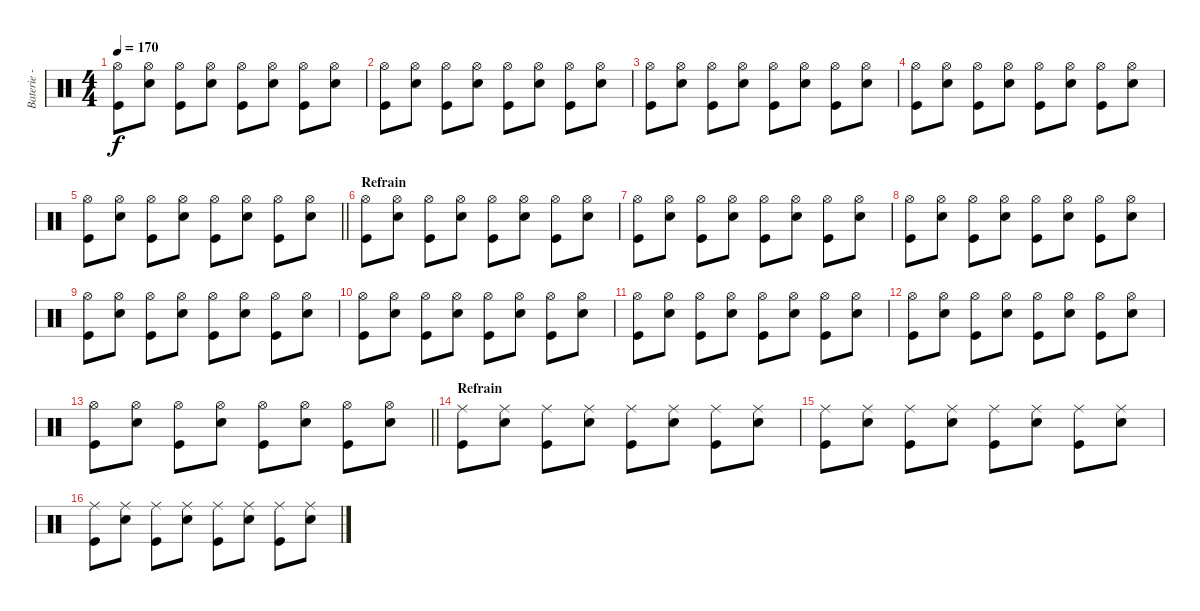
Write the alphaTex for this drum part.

\track ("Baterie - Guillaume" "Baterie - ") {instrument percussion}
\staff {score}
\articulation defaults
\ts (4 4)
\tempo 170
\clef neutral
\ks c
("Hi-Hat (open)" "Kick (hit)").8{dy f} ("Hi-Hat (open)" "Electric Snare (hit)").8 ("Hi-Hat (open)" "Kick (hit)").8 ("Hi-Hat (open)" "Electric Snare (hit)").8 ("Hi-Hat (open)" "Kick (hit)").8 ("Hi-Hat (open)" "Electric Snare (hit)").8 ("Hi-Hat (open)" "Kick (hit)").8 ("Hi-Hat (open)" "Electric Snare (hit)").8 |
("Hi-Hat (open)" "Kick (hit)").8 ("Hi-Hat (open)" "Electric Snare (hit)").8 ("Hi-Hat (open)" "Kick (hit)").8 ("Hi-Hat (open)" "Electric Snare (hit)").8 ("Hi-Hat (open)" "Kick (hit)").8 ("Hi-Hat (open)" "Electric Snare (hit)").8 ("Hi-Hat (open)" "Kick (hit)").8 ("Hi-Hat (open)" "Electric Snare (hit)").8 |
("Hi-Hat (open)" "Kick (hit)").8 ("Hi-Hat (open)" "Electric Snare (hit)").8 ("Hi-Hat (open)" "Kick (hit)").8 ("Hi-Hat (open)" "Electric Snare (hit)").8 ("Hi-Hat (open)" "Kick (hit)").8 ("Hi-Hat (open)" "Electric Snare (hit)").8 ("Hi-Hat (open)" "Kick (hit)").8 ("Hi-Hat (open)" "Electric Snare (hit)").8 |
("Hi-Hat (open)" "Kick (hit)").8 ("Hi-Hat (open)" "Electric Snare (hit)").8 ("Hi-Hat (open)" "Kick (hit)").8 ("Hi-Hat (open)" "Electric Snare (hit)").8 ("Hi-Hat (open)" "Kick (hit)").8 ("Hi-Hat (open)" "Electric Snare (hit)").8 ("Hi-Hat (open)" "Kick (hit)").8 ("Hi-Hat (open)" "Electric Snare (hit)").8 |
\barLineRight lightlight
("Hi-Hat (open)" "Kick (hit)").8 ("Hi-Hat (open)" "Electric Snare (hit)").8 ("Hi-Hat (open)" "Kick (hit)").8 ("Hi-Hat (open)" "Electric Snare (hit)").8 ("Hi-Hat (open)" "Kick (hit)").8 ("Hi-Hat (open)" "Electric Snare (hit)").8 ("Hi-Hat (open)" "Kick (hit)").8 ("Hi-Hat (open)" "Electric Snare (hit)").8 |
\section ("" "Refrain")
("Hi-Hat (open)" "Kick (hit)").8 ("Hi-Hat (open)" "Electric Snare (hit)").8 ("Hi-Hat (open)" "Kick (hit)").8 ("Hi-Hat (open)" "Electric Snare (hit)").8 ("Hi-Hat (open)" "Kick (hit)").8 ("Hi-Hat (open)" "Electric Snare (hit)").8 ("Hi-Hat (open)" "Kick (hit)").8 ("Hi-Hat (open)" "Electric Snare (hit)").8 |
("Hi-Hat (open)" "Kick (hit)").8 ("Hi-Hat (open)" "Electric Snare (hit)").8 ("Hi-Hat (open)" "Kick (hit)").8 ("Hi-Hat (open)" "Electric Snare (hit)").8 ("Hi-Hat (open)" "Kick (hit)").8 ("Hi-Hat (open)" "Electric Snare (hit)").8 ("Hi-Hat (open)" "Kick (hit)").8 ("Hi-Hat (open)" "Electric Snare (hit)").8 |
("Hi-Hat (open)" "Kick (hit)").8 ("Hi-Hat (open)" "Electric Snare (hit)").8 ("Hi-Hat (open)" "Kick (hit)").8 ("Hi-Hat (open)" "Electric Snare (hit)").8 ("Hi-Hat (open)" "Kick (hit)").8 ("Hi-Hat (open)" "Electric Snare (hit)").8 ("Hi-Hat (open)" "Kick (hit)").8 ("Hi-Hat (open)" "Electric Snare (hit)").8 |
("Hi-Hat (open)" "Kick (hit)").8 ("Hi-Hat (open)" "Electric Snare (hit)").8 ("Hi-Hat (open)" "Kick (hit)").8 ("Hi-Hat (open)" "Electric Snare (hit)").8 ("Hi-Hat (open)" "Kick (hit)").8 ("Hi-Hat (open)" "Electric Snare (hit)").8 ("Hi-Hat (open)" "Kick (hit)").8 ("Hi-Hat (open)" "Electric Snare (hit)").8 |
("Hi-Hat (open)" "Kick (hit)").8 ("Hi-Hat (open)" "Electric Snare (hit)").8 ("Hi-Hat (open)" "Kick (hit)").8 ("Hi-Hat (open)" "Electric Snare (hit)").8 ("Hi-Hat (open)" "Kick (hit)").8 ("Hi-Hat (open)" "Electric Snare (hit)").8 ("Hi-Hat (open)" "Kick (hit)").8 ("Hi-Hat (open)" "Electric Snare (hit)").8 |
("Hi-Hat (open)" "Kick (hit)").8 ("Hi-Hat (open)" "Electric Snare (hit)").8 ("Hi-Hat (open)" "Kick (hit)").8 ("Hi-Hat (open)" "Electric Snare (hit)").8 ("Hi-Hat (open)" "Kick (hit)").8 ("Hi-Hat (open)" "Electric Snare (hit)").8 ("Hi-Hat (open)" "Kick (hit)").8 ("Hi-Hat (open)" "Electric Snare (hit)").8 |
("Hi-Hat (open)" "Kick (hit)").8 ("Hi-Hat (open)" "Electric Snare (hit)").8 ("Hi-Hat (open)" "Kick (hit)").8 ("Hi-Hat (open)" "Electric Snare (hit)").8 ("Hi-Hat (open)" "Kick (hit)").8 ("Hi-Hat (open)" "Electric Snare (hit)").8 ("Hi-Hat (open)" "Kick (hit)").8 ("Hi-Hat (open)" "Electric Snare (hit)").8 |
\barLineRight lightlight
("Hi-Hat (open)" "Kick (hit)").8 ("Hi-Hat (open)" "Electric Snare (hit)").8 ("Hi-Hat (open)" "Kick (hit)").8 ("Hi-Hat (open)" "Electric Snare (hit)").8 ("Hi-Hat (open)" "Kick (hit)").8 ("Hi-Hat (open)" "Electric Snare (hit)").8 ("Hi-Hat (open)" "Kick (hit)").8 ("Hi-Hat (open)" "Electric Snare (hit)").8 |
\section ("" "Refrain")
("Ride (middle)" "Kick (hit)").8 ("Ride (middle)" "Electric Snare (hit)").8 ("Ride (middle)" "Kick (hit)").8 ("Ride (middle)" "Electric Snare (hit)").8 ("Ride (middle)" "Kick (hit)").8 ("Ride (middle)" "Electric Snare (hit)").8 ("Ride (middle)" "Kick (hit)").8 ("Ride (middle)" "Electric Snare (hit)").8 |
("Ride (middle)" "Kick (hit)").8 ("Ride (middle)" "Electric Snare (hit)").8 ("Ride (middle)" "Kick (hit)").8 ("Ride (middle)" "Electric Snare (hit)").8 ("Ride (middle)" "Kick (hit)").8 ("Ride (middle)" "Electric Snare (hit)").8 ("Ride (middle)" "Kick (hit)").8 ("Ride (middle)" "Electric Snare (hit)").8 |
("Ride (middle)" "Kick (hit)").8 ("Ride (middle)" "Electric Snare (hit)").8 ("Ride (middle)" "Kick (hit)").8 ("Ride (middle)" "Electric Snare (hit)").8 ("Ride (middle)" "Kick (hit)").8 ("Ride (middle)" "Electric Snare (hit)").8 ("Ride (middle)" "Kick (hit)").8 ("Ride (middle)" "Electric Snare (hit)").8
